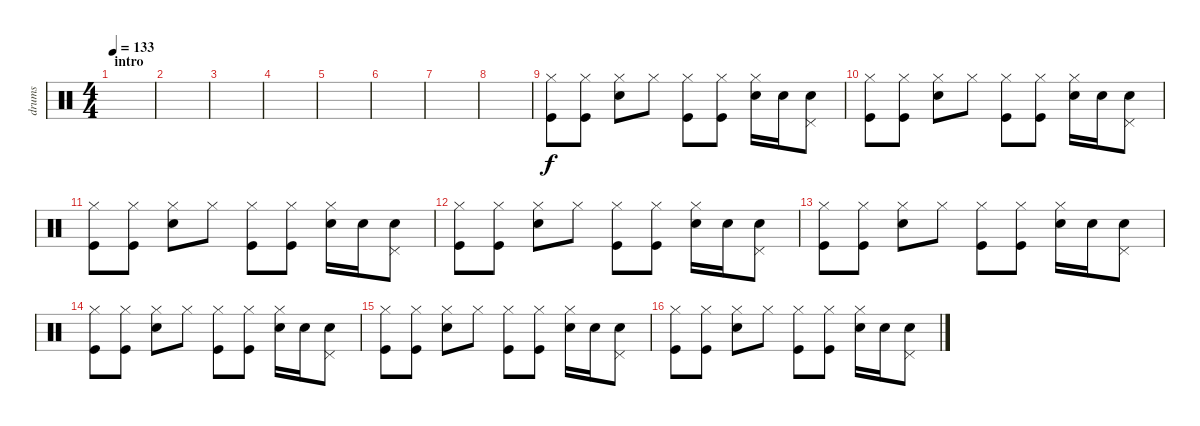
\track ("drums" "drums") {instrument percussion}
\staff {score}
\articulation defaults
\ts (4 4)
\section ("" "intro")
\tempo 133
\clef neutral
\ks c
|
|
|
|
|
|
|
|
("Kick (hit)" "Hi-Hat (closed)").8 ("Kick (hit)" "Hi-Hat (closed)").8 ("Electric Snare (hit)" "Hi-Hat (closed)").8 "Hi-Hat (closed)".8 ("Kick (hit)" "Hi-Hat (closed)").8 ("Kick (hit)" "Hi-Hat (closed)").8 ("Electric Snare (hit)" "Hi-Hat (closed)").16 "Electric Snare (hit)".16 ("Electric Snare (hit)" "Pedal Hi-Hat (hit)").8 |
("Kick (hit)" "Hi-Hat (closed)").8 ("Kick (hit)" "Hi-Hat (closed)").8 ("Electric Snare (hit)" "Hi-Hat (closed)").8 "Hi-Hat (closed)".8 ("Kick (hit)" "Hi-Hat (closed)").8 ("Kick (hit)" "Hi-Hat (closed)").8 ("Electric Snare (hit)" "Hi-Hat (closed)").16 "Electric Snare (hit)".16 ("Electric Snare (hit)" "Pedal Hi-Hat (hit)").8 |
("Kick (hit)" "Hi-Hat (closed)").8 ("Kick (hit)" "Hi-Hat (closed)").8 ("Electric Snare (hit)" "Hi-Hat (closed)").8 "Hi-Hat (closed)".8 ("Kick (hit)" "Hi-Hat (closed)").8 ("Kick (hit)" "Hi-Hat (closed)").8 ("Electric Snare (hit)" "Hi-Hat (closed)").16 "Electric Snare (hit)".16 ("Electric Snare (hit)" "Pedal Hi-Hat (hit)").8 |
("Kick (hit)" "Hi-Hat (closed)").8 ("Kick (hit)" "Hi-Hat (closed)").8 ("Electric Snare (hit)" "Hi-Hat (closed)").8 "Hi-Hat (closed)".8 ("Kick (hit)" "Hi-Hat (closed)").8 ("Kick (hit)" "Hi-Hat (closed)").8 ("Electric Snare (hit)" "Hi-Hat (closed)").16 "Electric Snare (hit)".16 ("Electric Snare (hit)" "Pedal Hi-Hat (hit)").8 |
("Kick (hit)" "Hi-Hat (closed)").8 ("Kick (hit)" "Hi-Hat (closed)").8 ("Electric Snare (hit)" "Hi-Hat (closed)").8 "Hi-Hat (closed)".8 ("Kick (hit)" "Hi-Hat (closed)").8 ("Kick (hit)" "Hi-Hat (closed)").8 ("Electric Snare (hit)" "Hi-Hat (closed)").16 "Electric Snare (hit)".16 ("Electric Snare (hit)" "Pedal Hi-Hat (hit)").8 |
("Kick (hit)" "Hi-Hat (closed)").8 ("Kick (hit)" "Hi-Hat (closed)").8 ("Electric Snare (hit)" "Hi-Hat (closed)").8 "Hi-Hat (closed)".8 ("Kick (hit)" "Hi-Hat (closed)").8 ("Kick (hit)" "Hi-Hat (closed)").8 ("Electric Snare (hit)" "Hi-Hat (closed)").16 "Electric Snare (hit)".16 ("Electric Snare (hit)" "Pedal Hi-Hat (hit)").8 |
("Kick (hit)" "Hi-Hat (closed)").8 ("Kick (hit)" "Hi-Hat (closed)").8 ("Electric Snare (hit)" "Hi-Hat (closed)").8 "Hi-Hat (closed)".8 ("Kick (hit)" "Hi-Hat (closed)").8 ("Kick (hit)" "Hi-Hat (closed)").8 ("Electric Snare (hit)" "Hi-Hat (closed)").16 "Electric Snare (hit)".16 ("Electric Snare (hit)" "Pedal Hi-Hat (hit)").8 |
("Kick (hit)" "Hi-Hat (closed)").8 ("Kick (hit)" "Hi-Hat (closed)").8 ("Electric Snare (hit)" "Hi-Hat (closed)").8 "Hi-Hat (closed)".8 ("Kick (hit)" "Hi-Hat (closed)").8 ("Kick (hit)" "Hi-Hat (closed)").8 ("Electric Snare (hit)" "Hi-Hat (closed)").16 "Electric Snare (hit)".16 ("Electric Snare (hit)" "Pedal Hi-Hat (hit)").8
